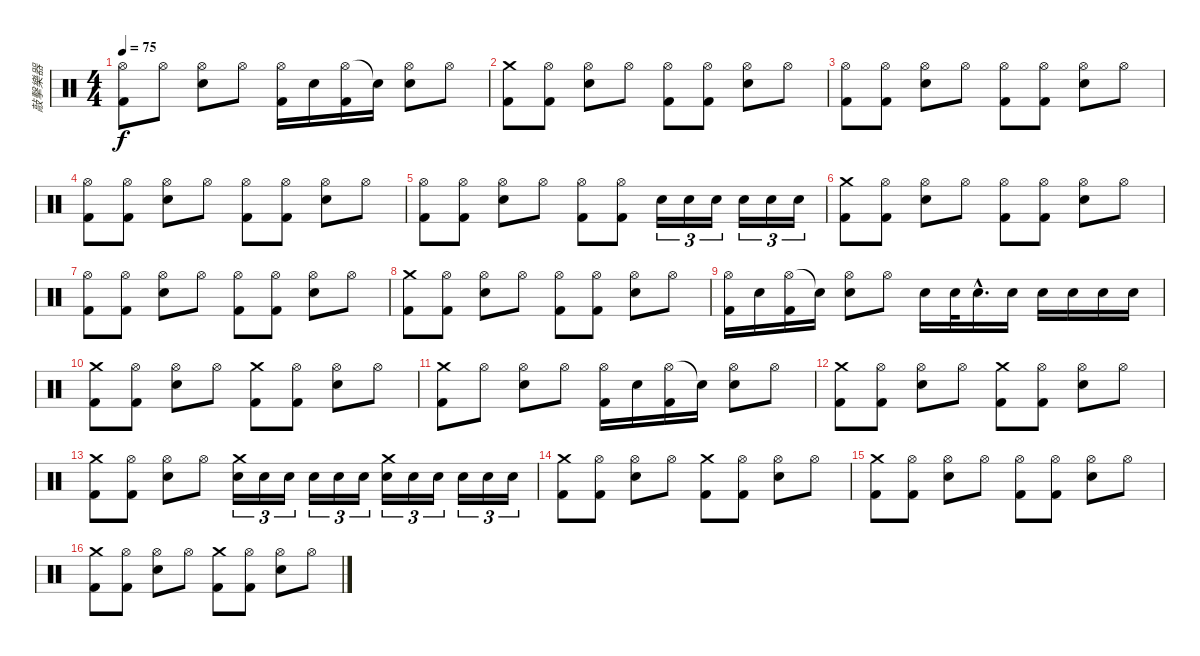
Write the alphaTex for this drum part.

\track ("敲擊樂器" "敲擊樂器") {instrument percussion}
\staff {score}
\articulation defaults
\ts (4 4)
\tempo 75
\clef neutral
\ks c
("Hi-Hat (open)" "Kick (hit) 2").8{dy f} "Hi-Hat (open)".8 ("Hi-Hat (open)" "Snare (hit) 2").8 "Hi-Hat (open)".8 ("Hi-Hat (open)" "Kick (hit) 2").16 "Snare (hit) 2".16 ("Hi-Hat (open)" "Kick (hit) 2").16 "Snare (hit)"{t}.16 ("Hi-Hat (open)" "Snare (hit) 2").8 "Hi-Hat (open)".8 |
("Crash medium (hit)" "Kick (hit) 2").8 ("Hi-Hat (open)" "Kick (hit) 2").8 ("Hi-Hat (open)" "Snare (hit) 2").8 "Hi-Hat (open)".8 ("Hi-Hat (open)" "Kick (hit) 2").8 ("Hi-Hat (open)" "Kick (hit) 2").8 ("Hi-Hat (open)" "Snare (hit) 2").8 "Hi-Hat (open)".8 |
("Hi-Hat (open)" "Kick (hit) 2").8 ("Hi-Hat (open)" "Kick (hit) 2").8 ("Hi-Hat (open)" "Snare (hit) 2").8 "Hi-Hat (open)".8 ("Hi-Hat (open)" "Kick (hit) 2").8 ("Hi-Hat (open)" "Kick (hit) 2").8 ("Hi-Hat (open)" "Snare (hit) 2").8 "Hi-Hat (open)".8 |
("Hi-Hat (open)" "Kick (hit) 2").8 ("Hi-Hat (open)" "Kick (hit) 2").8 ("Hi-Hat (open)" "Snare (hit) 2").8 "Hi-Hat (open)".8 ("Hi-Hat (open)" "Kick (hit) 2").8 ("Hi-Hat (open)" "Kick (hit) 2").8 ("Hi-Hat (open)" "Snare (hit) 2").8 "Hi-Hat (open)".8 |
("Hi-Hat (open)" "Kick (hit) 2").8 ("Hi-Hat (open)" "Kick (hit) 2").8 ("Hi-Hat (open)" "Snare (hit) 2").8 "Hi-Hat (open)".8 ("Hi-Hat (open)" "Kick (hit) 2").8 ("Hi-Hat (open)" "Kick (hit) 2").8 "Snare (hit) 2".16{tu (3 2)} "Snare (hit) 2".16{tu (3 2)} "Snare (hit) 2".16{tu (3 2)} "Snare (hit) 2".16{tu (3 2)} "Snare (hit) 2".16{tu (3 2)} "Snare (hit) 2".16{tu (3 2)} |
("Crash medium (hit)" "Kick (hit) 2").8 ("Hi-Hat (open)" "Kick (hit) 2").8 ("Hi-Hat (open)" "Snare (hit) 2").8 "Hi-Hat (open)".8 ("Hi-Hat (open)" "Kick (hit) 2").8 ("Hi-Hat (open)" "Kick (hit) 2").8 ("Hi-Hat (open)" "Snare (hit) 2").8 "Hi-Hat (open)".8 |
("Hi-Hat (open)" "Kick (hit) 2").8 ("Hi-Hat (open)" "Kick (hit) 2").8 ("Hi-Hat (open)" "Snare (hit) 2").8 "Hi-Hat (open)".8 ("Hi-Hat (open)" "Kick (hit) 2").8 ("Hi-Hat (open)" "Kick (hit) 2").8 ("Hi-Hat (open)" "Snare (hit) 2").8 "Hi-Hat (open)".8 |
("Crash medium (hit)" "Kick (hit) 2").8 ("Hi-Hat (open)" "Kick (hit) 2").8 ("Hi-Hat (open)" "Snare (hit) 2").8 "Hi-Hat (open)".8 ("Hi-Hat (open)" "Kick (hit) 2").8 ("Hi-Hat (open)" "Kick (hit) 2").8 ("Hi-Hat (open)" "Snare (hit) 2").8 "Hi-Hat (open)".8 |
("Hi-Hat (open)" "Kick (hit) 2").16 "Snare (hit) 2".16 ("Hi-Hat (open)" "Kick (hit) 2").16 "Snare (hit)"{t}.16 ("Hi-Hat (open)" "Snare (hit) 2").8 "Hi-Hat (open)".8 "Snare (hit) 2".16 "Snare (hit) 2".32 "Snare (hit) 2"{hac}.16{d} "Snare (hit) 2".16 "Snare (hit) 2".16 "Snare (hit) 2".16 "Snare (hit) 2".16 "Snare (hit) 2".16 |
("Crash medium (hit)" "Kick (hit) 2").8 ("Hi-Hat (open)" "Kick (hit) 2").8 ("Hi-Hat (open)" "Snare (hit) 2").8 "Hi-Hat (open)".8 ("Crash medium (hit)" "Kick (hit) 2").8 ("Hi-Hat (open)" "Kick (hit) 2").8 ("Hi-Hat (open)" "Snare (hit) 2").8 "Hi-Hat (open)".8 |
("Crash medium (hit)" "Kick (hit) 2").8 "Hi-Hat (open)".8 ("Hi-Hat (open)" "Snare (hit) 2").8 "Hi-Hat (open)".8 ("Hi-Hat (open)" "Kick (hit) 2").16 "Snare (hit) 2".16 ("Hi-Hat (open)" "Kick (hit) 2").16 "Snare (hit)"{t}.16 ("Hi-Hat (open)" "Snare (hit) 2").8 "Hi-Hat (open)".8 |
("Crash medium (hit)" "Kick (hit) 2").8 ("Hi-Hat (open)" "Kick (hit) 2").8 ("Hi-Hat (open)" "Snare (hit) 2").8 "Hi-Hat (open)".8 ("Crash medium (hit)" "Kick (hit) 2").8 ("Hi-Hat (open)" "Kick (hit) 2").8 ("Hi-Hat (open)" "Snare (hit) 2").8 "Hi-Hat (open)".8 |
("Crash medium (hit)" "Kick (hit) 2").8 ("Hi-Hat (open)" "Kick (hit) 2").8 ("Hi-Hat (open)" "Snare (hit) 2").8 "Hi-Hat (open)".8 ("Crash medium (hit)" "Snare (hit) 2").16{tu (3 2)} "Snare (hit) 2".16{tu (3 2)} "Snare (hit) 2".16{tu (3 2)} "Snare (hit) 2".16{tu (3 2)} "Snare (hit) 2".16{tu (3 2)} "Snare (hit) 2".16{tu (3 2)} ("Crash medium (hit)" "Snare (hit) 2").16{tu (3 2)} "Snare (hit) 2".16{tu (3 2)} "Snare (hit) 2".16{tu (3 2)} "Snare (hit) 2".16{tu (3 2)} "Snare (hit) 2".16{tu (3 2)} "Snare (hit) 2".16{tu (3 2)} |
("Crash medium (hit)" "Kick (hit) 2").8 ("Hi-Hat (open)" "Kick (hit) 2").8 ("Hi-Hat (open)" "Snare (hit) 2").8 "Hi-Hat (open)".8 ("Crash medium (hit)" "Kick (hit) 2").8 ("Hi-Hat (open)" "Kick (hit) 2").8 ("Hi-Hat (open)" "Snare (hit) 2").8 "Hi-Hat (open)".8 |
("Crash medium (hit)" "Kick (hit) 2").8 ("Hi-Hat (open)" "Kick (hit) 2").8 ("Hi-Hat (open)" "Snare (hit) 2").8 "Hi-Hat (open)".8 ("Hi-Hat (open)" "Kick (hit) 2").8 ("Hi-Hat (open)" "Kick (hit) 2").8 ("Hi-Hat (open)" "Snare (hit) 2").8 "Hi-Hat (open)".8 |
("Crash medium (hit)" "Kick (hit) 2").8 ("Hi-Hat (open)" "Kick (hit) 2").8 ("Hi-Hat (open)" "Snare (hit) 2").8 "Hi-Hat (open)".8 ("Crash medium (hit)" "Kick (hit) 2").8 ("Hi-Hat (open)" "Kick (hit) 2").8 ("Hi-Hat (open)" "Snare (hit) 2").8 "Hi-Hat (open)".8
